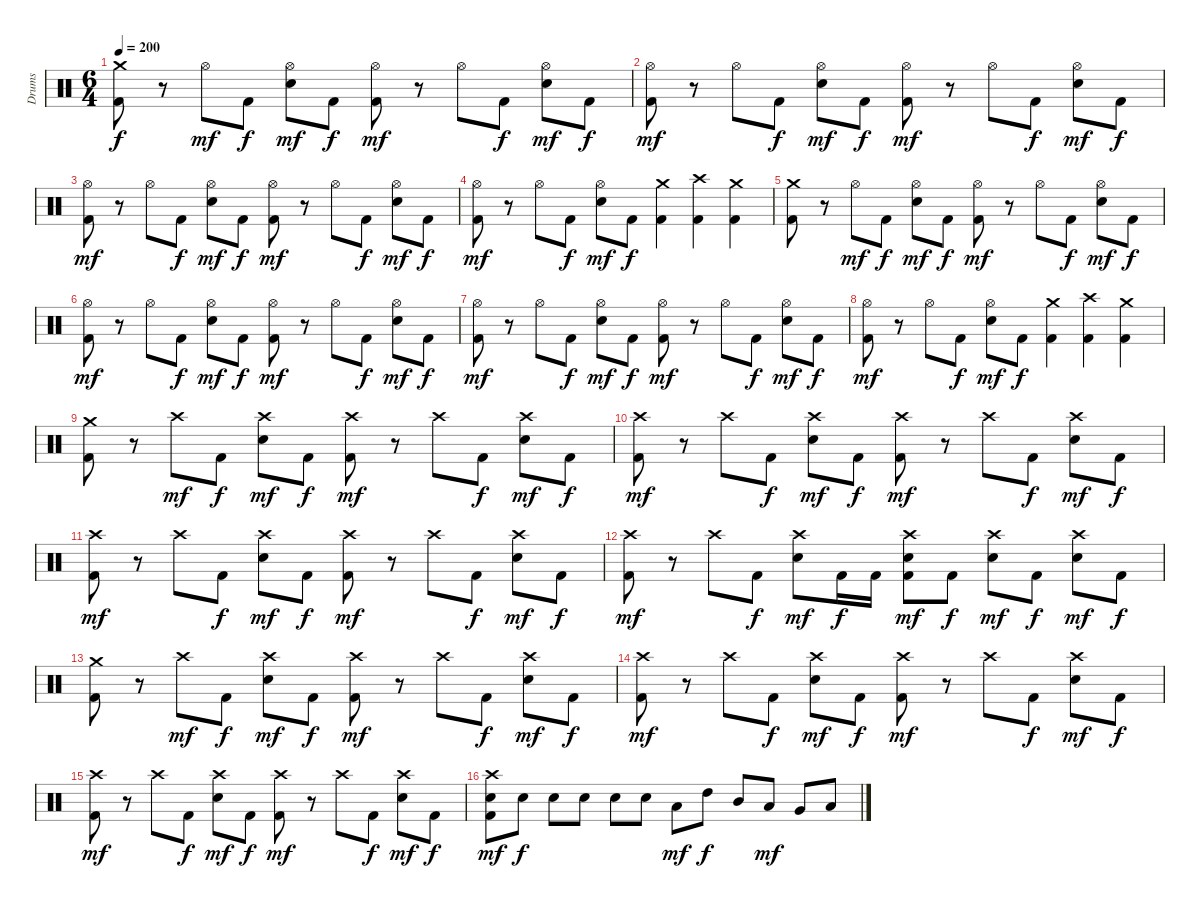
\track ("Drums" "Drums") {instrument percussion}
\staff {score}
\articulation defaults
\ts (6 4)
\tempo 200
\clef neutral
\ks c
("Crash medium (hit)" "Kick (hit) 2").8{dy f} r.8 "Hi-Hat (open)".8{dy mf} "Kick (hit) 2".8{dy f} ("Hi-Hat (open)" "Snare (hit) 2").8{dy mf} "Kick (hit) 2".8{dy f} ("Hi-Hat (open)" "Kick (hit) 2").8{dy mf} r.8 "Hi-Hat (open)".8 "Kick (hit) 2".8{dy f} ("Hi-Hat (open)" "Snare (hit) 2").8{dy mf} "Kick (hit) 2".8{dy f} |
("Hi-Hat (open)" "Kick (hit) 2").8{dy mf} r.8 "Hi-Hat (open)".8 "Kick (hit) 2".8{dy f} ("Hi-Hat (open)" "Snare (hit) 2").8{dy mf} "Kick (hit) 2".8{dy f} ("Hi-Hat (open)" "Kick (hit) 2").8{dy mf} r.8 "Hi-Hat (open)".8 "Kick (hit) 2".8{dy f} ("Hi-Hat (open)" "Snare (hit) 2").8{dy mf} "Kick (hit) 2".8{dy f} |
("Hi-Hat (open)" "Kick (hit) 2").8{dy mf} r.8 "Hi-Hat (open)".8 "Kick (hit) 2".8{dy f} ("Hi-Hat (open)" "Snare (hit) 2").8{dy mf} "Kick (hit) 2".8{dy f} ("Hi-Hat (open)" "Kick (hit) 2").8{dy mf} r.8 "Hi-Hat (open)".8 "Kick (hit) 2".8{dy f} ("Hi-Hat (open)" "Snare (hit) 2").8{dy mf} "Kick (hit) 2".8{dy f} |
("Hi-Hat (open)" "Kick (hit) 2").8{dy mf} r.8 "Hi-Hat (open)".8 "Kick (hit) 2".8{dy f} ("Hi-Hat (open)" "Snare (hit) 2").8{dy mf} "Kick (hit) 2".8{dy f} ("Crash medium (hit)" "Kick (hit) 2").4 ("Crash high (hit)" "Kick (hit) 2").4 ("Crash medium (hit)" "Kick (hit) 2").4 |
("Crash medium (hit)" "Kick (hit) 2").8 r.8 "Hi-Hat (open)".8{dy mf} "Kick (hit) 2".8{dy f} ("Hi-Hat (open)" "Snare (hit) 2").8{dy mf} "Kick (hit) 2".8{dy f} ("Hi-Hat (open)" "Kick (hit) 2").8{dy mf} r.8 "Hi-Hat (open)".8 "Kick (hit) 2".8{dy f} ("Hi-Hat (open)" "Snare (hit) 2").8{dy mf} "Kick (hit) 2".8{dy f} |
("Hi-Hat (open)" "Kick (hit) 2").8{dy mf} r.8 "Hi-Hat (open)".8 "Kick (hit) 2".8{dy f} ("Hi-Hat (open)" "Snare (hit) 2").8{dy mf} "Kick (hit) 2".8{dy f} ("Hi-Hat (open)" "Kick (hit) 2").8{dy mf} r.8 "Hi-Hat (open)".8 "Kick (hit) 2".8{dy f} ("Hi-Hat (open)" "Snare (hit) 2").8{dy mf} "Kick (hit) 2".8{dy f} |
("Hi-Hat (open)" "Kick (hit) 2").8{dy mf} r.8 "Hi-Hat (open)".8 "Kick (hit) 2".8{dy f} ("Hi-Hat (open)" "Snare (hit) 2").8{dy mf} "Kick (hit) 2".8{dy f} ("Hi-Hat (open)" "Kick (hit) 2").8{dy mf} r.8 "Hi-Hat (open)".8 "Kick (hit) 2".8{dy f} ("Hi-Hat (open)" "Snare (hit) 2").8{dy mf} "Kick (hit) 2".8{dy f} |
("Hi-Hat (open)" "Kick (hit) 2").8{dy mf} r.8 "Hi-Hat (open)".8 "Kick (hit) 2".8{dy f} ("Hi-Hat (open)" "Snare (hit) 2").8{dy mf} "Kick (hit) 2".8{dy f} ("Crash medium (hit)" "Kick (hit) 2").4 ("Crash high (hit)" "Kick (hit) 2").4 ("Crash medium (hit)" "Kick (hit) 2").4 |
("Crash medium (hit)" "Kick (hit) 2").8 r.8 "Crash high (hit)".8{dy mf} "Kick (hit) 2".8{dy f} ("Crash high (hit)" "Snare (hit) 2").8{dy mf} "Kick (hit) 2".8{dy f} ("Crash high (hit)" "Kick (hit) 2").8{dy mf} r.8 "Crash high (hit)".8 "Kick (hit) 2".8{dy f} ("Crash high (hit)" "Snare (hit) 2").8{dy mf} "Kick (hit) 2".8{dy f} |
("Crash high (hit)" "Kick (hit) 2").8{dy mf} r.8 "Crash high (hit)".8 "Kick (hit) 2".8{dy f} ("Crash high (hit)" "Snare (hit) 2").8{dy mf} "Kick (hit) 2".8{dy f} ("Crash high (hit)" "Kick (hit) 2").8{dy mf} r.8 "Crash high (hit)".8 "Kick (hit) 2".8{dy f} ("Crash high (hit)" "Snare (hit) 2").8{dy mf} "Kick (hit) 2".8{dy f} |
("Crash high (hit)" "Kick (hit) 2").8{dy mf} r.8 "Crash high (hit)".8 "Kick (hit) 2".8{dy f} ("Crash high (hit)" "Snare (hit) 2").8{dy mf} "Kick (hit) 2".8{dy f} ("Crash high (hit)" "Kick (hit) 2").8{dy mf} r.8 "Crash high (hit)".8 "Kick (hit) 2".8{dy f} ("Crash high (hit)" "Snare (hit) 2").8{dy mf} "Kick (hit) 2".8{dy f} |
("Crash high (hit)" "Kick (hit) 2").8{dy mf} r.8 "Crash high (hit)".8 "Kick (hit) 2".8{dy f} ("Crash high (hit)" "Snare (hit) 2").8{dy mf} "Kick (hit) 2".16{dy f} "Kick (hit) 2".16 ("Crash high (hit)" "Snare (hit) 2" "Kick (hit) 2").8{dy mf} "Kick (hit) 2".8{dy f} ("Crash high (hit)" "Snare (hit) 2").8{dy mf} "Kick (hit) 2".8{dy f} ("Crash high (hit)" "Snare (hit) 2").8{dy mf} "Kick (hit) 2".8{dy f} |
("Crash medium (hit)" "Kick (hit) 2").8 r.8 "Crash high (hit)".8{dy mf} "Kick (hit) 2".8{dy f} ("Crash high (hit)" "Snare (hit) 2").8{dy mf} "Kick (hit) 2".8{dy f} ("Crash high (hit)" "Kick (hit) 2").8{dy mf} r.8 "Crash high (hit)".8 "Kick (hit) 2".8{dy f} ("Crash high (hit)" "Snare (hit) 2").8{dy mf} "Kick (hit) 2".8{dy f} |
("Crash high (hit)" "Kick (hit) 2").8{dy mf} r.8 "Crash high (hit)".8 "Kick (hit) 2".8{dy f} ("Crash high (hit)" "Snare (hit) 2").8{dy mf} "Kick (hit) 2".8{dy f} ("Crash high (hit)" "Kick (hit) 2").8{dy mf} r.8 "Crash high (hit)".8 "Kick (hit) 2".8{dy f} ("Crash high (hit)" "Snare (hit) 2").8{dy mf} "Kick (hit) 2".8{dy f} |
("Crash high (hit)" "Kick (hit) 2").8{dy mf} r.8 "Crash high (hit)".8 "Kick (hit) 2".8{dy f} ("Crash high (hit)" "Snare (hit) 2").8{dy mf} "Kick (hit) 2".8{dy f} ("Crash high (hit)" "Kick (hit) 2").8{dy mf} r.8 "Crash high (hit)".8 "Kick (hit) 2".8{dy f} ("Crash high (hit)" "Snare (hit) 2").8{dy mf} "Kick (hit) 2".8{dy f} |
("Crash high (hit)" "Snare (hit) 2" "Kick (hit) 2").8{dy mf} "Snare (hit) 2".8{dy f} "Snare (hit) 2".8 "Snare (hit) 2".8 "Snare (hit) 2".8 "Snare (hit) 2".8 "Low Floor Tom (hit)".8{dy mf} "High Tom (hit)".8{dy f} "Mid Tom (hit)".8 "Low Tom (hit)".8{dy mf} "Very Low Tom (hit)".8 "Low Floor Tom (hit)".8
